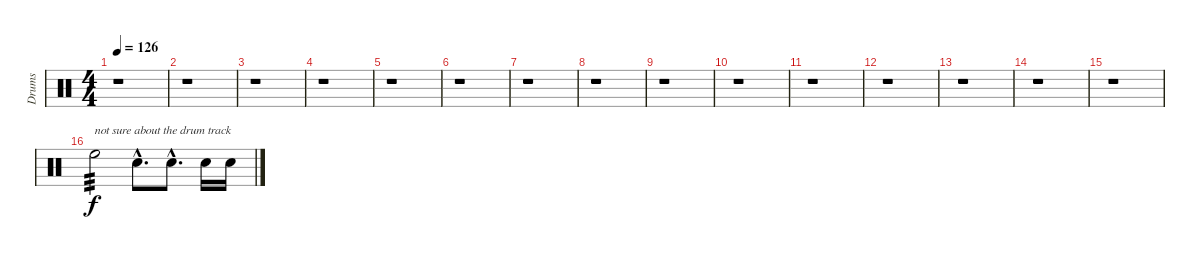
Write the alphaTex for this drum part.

\track ("Drums" "Drums") {instrument percussion}
\staff {score}
\articulation defaults
\ts (4 4)
\tempo 126
\clef neutral
\ks c
r.1{dy f} |
r.1 |
r.1 |
r.1 |
r.1 |
r.1 |
r.1 |
r.1 |
r.1 |
r.1 |
r.1 |
r.1 |
r.1 |
r.1 |
r.1 |
"High Floor Tom (hit)".2{txt "not sure about the drum track" tp 3} "Electric Snare (hit)"{hac}.8{d} "Electric Snare (hit)"{hac}.8{d} "Electric Snare (hit)".16 "Electric Snare (hit)".16
